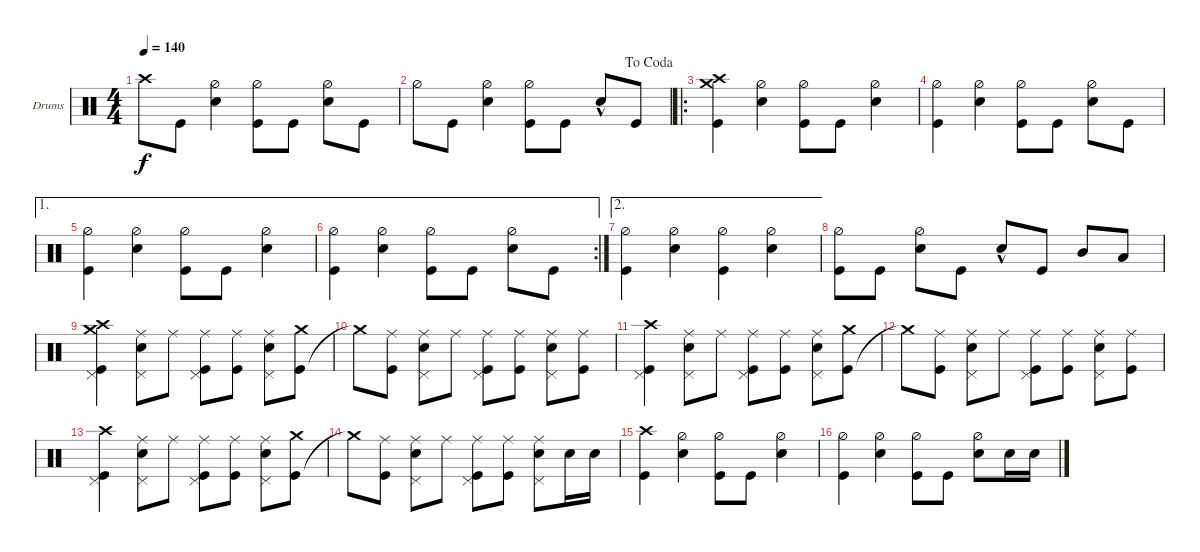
\defaultSystemsLayout 4
\bracketExtendMode groupsimilarinstruments
\firstSystemTrackNameOrientation horizontal
\otherSystemsTrackNameOrientation horizontal
\track ("Steve" "Drums") {instrument percussion}
\staff {score}
\articulation defaults
\ts (4 4)
\tempo 140
\clef neutral
\ks c "Crash high (hit)"{t}.8{dy f} "Kick (hit)".8
("Snare (hit) 2" "Hi-Hat (half)").4 ("Kick (hit)" "Hi-Hat (half)").8 "Kick (hit)".8 ("Snare (hit) 2" "Hi-Hat (half)").8 "Kick (hit)".8 |
\jump dacoda "Hi-Hat (half)".8 "Kick (hit)".8
("Snare (hit) 2" "Hi-Hat (half)").4 ("Kick (hit)" "Hi-Hat (half)").8 "Kick (hit)".8 "Snare (hit) 2"{hac}.8 "Kick (hit)".8 |
\ro
("Kick (hit)" "Crash high (hit)" "Crash medium (hit)").4 ("Snare (hit) 2" "Hi-Hat (half)").4 ("Kick (hit)" "Hi-Hat (half)").8 "Kick (hit)".8 ("Snare (hit) 2" "Hi-Hat (half)").4 |
("Kick (hit)" "Hi-Hat (half)").4 ("Snare (hit) 2" "Hi-Hat (half)").4 ("Kick (hit)" "Hi-Hat (half)").8 "Kick (hit)".8 ("Snare (hit) 2" "Hi-Hat (half)").8 "Kick (hit)".8 |
\ae 1
("Kick (hit)" "Hi-Hat (half)").4 ("Snare (hit) 2" "Hi-Hat (half)").4 ("Kick (hit)" "Hi-Hat (half)").8 "Kick (hit)".8 ("Snare (hit) 2" "Hi-Hat (half)").4 |
\ae 1
\rc 2
("Kick (hit)" "Hi-Hat (half)").4 ("Snare (hit) 2" "Hi-Hat (half)").4 ("Kick (hit)" "Hi-Hat (half)").8 "Kick (hit)".8 ("Snare (hit) 2" "Hi-Hat (half)").8 "Kick (hit)".8 |
\ae 2
("Kick (hit)" "Hi-Hat (half)").4 ("Snare (hit) 2" "Hi-Hat (half)").4 ("Kick (hit)" "Hi-Hat (half)").4 ("Snare (hit) 2" "Hi-Hat (half)").4 |
("Kick (hit)" "Hi-Hat (half)").8 "Kick (hit)".8 ("Snare (hit) 2" "Hi-Hat (half)").8 "Kick (hit)".8 "Snare (hit) 2"{hac}.8 "Kick (hit)".8 "Mid Tom (hit)".8 "Low Tom (hit)".8 |
("Kick (hit)" "Crash high (hit)" "Crash medium (hit)" "Pedal Hi-Hat (hit)").4 ("Snare (hit) 2" "Ride (middle)" "Pedal Hi-Hat (hit)").8 "Ride (middle)".8 ("Kick (hit)" "Ride (middle)" "Pedal Hi-Hat (hit)").8 ("Kick (hit)" "Ride (middle)").8 ("Snare (hit) 2" "Ride (middle)" "Pedal Hi-Hat (hit)").8 ("Kick (hit)" "Crash medium (hit)").8 |
"Crash medium (hit)"{t}.8 ("Kick (hit)" "Ride (middle)").8 ("Snare (hit) 2" "Ride (middle)" "Pedal Hi-Hat (hit)").8 "Ride (middle)".8 ("Kick (hit)" "Ride (middle)" "Pedal Hi-Hat (hit)").8 ("Kick (hit)" "Ride (middle)").8 ("Snare (hit) 2" "Ride (middle)" "Pedal Hi-Hat (hit)").8 ("Ride (middle)" "Kick (hit)").8 |
("Kick (hit)" "Crash high (hit)" "Pedal Hi-Hat (hit)").4 ("Snare (hit) 2" "Ride (middle)" "Pedal Hi-Hat (hit)").8 "Ride (middle)".8 ("Kick (hit)" "Ride (middle)" "Pedal Hi-Hat (hit)").8 ("Kick (hit)" "Ride (middle)").8 ("Snare (hit) 2" "Ride (middle)" "Pedal Hi-Hat (hit)").8 ("Kick (hit)" "Crash medium (hit)").8 |
"Crash medium (hit)"{t}.8 ("Kick (hit)" "Ride (middle)").8 ("Snare (hit) 2" "Ride (middle)" "Pedal Hi-Hat (hit)").8 "Ride (middle)".8 ("Kick (hit)" "Ride (middle)" "Pedal Hi-Hat (hit)").8 ("Kick (hit)" "Ride (middle)").8 ("Snare (hit) 2" "Ride (middle)" "Pedal Hi-Hat (hit)").8 ("Ride (middle)" "Kick (hit)").8 |
("Kick (hit)" "Crash high (hit)" "Pedal Hi-Hat (hit)").4 ("Snare (hit) 2" "Ride (middle)" "Pedal Hi-Hat (hit)").8 "Ride (middle)".8 ("Kick (hit)" "Ride (middle)" "Pedal Hi-Hat (hit)").8 ("Kick (hit)" "Ride (middle)").8 ("Snare (hit) 2" "Ride (middle)" "Pedal Hi-Hat (hit)").8 ("Kick (hit)" "Crash medium (hit)").8 |
"Crash medium (hit)"{t}.8 ("Kick (hit)" "Ride (middle)").8 ("Snare (hit) 2" "Ride (middle)" "Pedal Hi-Hat (hit)").8 "Ride (middle)".8 ("Kick (hit)" "Ride (middle)" "Pedal Hi-Hat (hit)").8 ("Kick (hit)" "Ride (middle)").8 ("Snare (hit) 2" "Ride (middle)" "Pedal Hi-Hat (hit)").8 "Snare (hit) 2".16 "Snare (hit) 2".16 |
("Crash high (hit)" "Kick (hit)").4 ("Snare (hit) 2" "Hi-Hat (half)").4 ("Kick (hit)" "Hi-Hat (half)").8 "Kick (hit)".8 ("Snare (hit) 2" "Hi-Hat (half)").4 |
("Kick (hit)" "Hi-Hat (half)").4 ("Snare (hit) 2" "Hi-Hat (half)").4 ("Kick (hit)" "Hi-Hat (half)").8 "Kick (hit)".8 ("Snare (hit) 2" "Hi-Hat (half)").8 "Snare (hit) 2".16 "Snare (hit) 2".16
